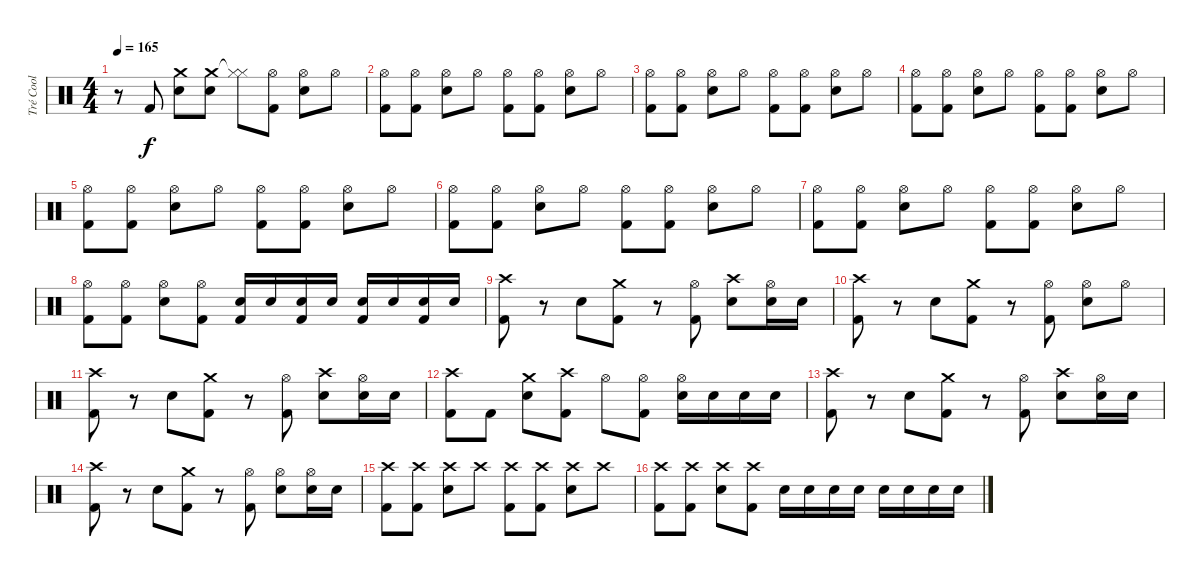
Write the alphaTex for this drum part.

\track ("Tré Cool" "Tré Cool") {instrument percussion}
\staff {score}
\articulation defaults
\ts (4 4)
\tempo 165
\clef neutral
\ks c
r.8{dy mp} "Kick (hit) 2".8{dy f} ("Crash medium (hit)" "Electric Snare (hit)").8 ("Crash medium (hit)" "Electric Snare (hit)").8 ("Hi-Hat (closed)"{t} "Hi-Hat (closed)").8 ("Hi-Hat (open)" "Kick (hit) 2").8 ("Hi-Hat (open)" "Electric Snare (hit)").8 "Hi-Hat (open)".8 |
("Hi-Hat (open)" "Kick (hit) 2").8 ("Hi-Hat (open)" "Kick (hit) 2").8 ("Hi-Hat (open)" "Electric Snare (hit)").8 "Hi-Hat (open)".8 ("Hi-Hat (open)" "Kick (hit) 2").8 ("Hi-Hat (open)" "Kick (hit) 2").8 ("Hi-Hat (open)" "Electric Snare (hit)").8 "Hi-Hat (open)".8 |
("Hi-Hat (open)" "Kick (hit) 2").8 ("Hi-Hat (open)" "Kick (hit) 2").8 ("Hi-Hat (open)" "Electric Snare (hit)").8 "Hi-Hat (open)".8 ("Hi-Hat (open)" "Kick (hit) 2").8 ("Hi-Hat (open)" "Kick (hit) 2").8 ("Hi-Hat (open)" "Electric Snare (hit)").8 "Hi-Hat (open)".8 |
("Hi-Hat (open)" "Kick (hit) 2").8 ("Hi-Hat (open)" "Kick (hit) 2").8 ("Hi-Hat (open)" "Electric Snare (hit)").8 "Hi-Hat (open)".8 ("Hi-Hat (open)" "Kick (hit) 2").8 ("Hi-Hat (open)" "Kick (hit) 2").8 ("Hi-Hat (open)" "Electric Snare (hit)").8 "Hi-Hat (open)".8 |
("Hi-Hat (open)" "Kick (hit) 2").8 ("Hi-Hat (open)" "Kick (hit) 2").8 ("Hi-Hat (open)" "Electric Snare (hit)").8 "Hi-Hat (open)".8 ("Hi-Hat (open)" "Kick (hit) 2").8 ("Hi-Hat (open)" "Kick (hit) 2").8 ("Hi-Hat (open)" "Electric Snare (hit)").8 "Hi-Hat (open)".8 |
("Hi-Hat (open)" "Kick (hit) 2").8 ("Hi-Hat (open)" "Kick (hit) 2").8 ("Hi-Hat (open)" "Electric Snare (hit)").8 "Hi-Hat (open)".8 ("Hi-Hat (open)" "Kick (hit) 2").8 ("Hi-Hat (open)" "Kick (hit) 2").8 ("Hi-Hat (open)" "Electric Snare (hit)").8 "Hi-Hat (open)".8 |
("Hi-Hat (open)" "Kick (hit) 2").8 ("Hi-Hat (open)" "Kick (hit) 2").8 ("Hi-Hat (open)" "Electric Snare (hit)").8 "Hi-Hat (open)".8 ("Hi-Hat (open)" "Kick (hit) 2").8 ("Hi-Hat (open)" "Kick (hit) 2").8 ("Hi-Hat (open)" "Electric Snare (hit)").8 "Hi-Hat (open)".8 |
("Hi-Hat (open)" "Kick (hit) 2").8 ("Hi-Hat (open)" "Kick (hit) 2").8 ("Hi-Hat (open)" "Electric Snare (hit)").8 ("Hi-Hat (open)" "Kick (hit) 2").8 ("Electric Snare (hit)" "Kick (hit) 2").16 "Electric Snare (hit)".16 ("Electric Snare (hit)" "Kick (hit) 2").16 "Electric Snare (hit)".16 ("Electric Snare (hit)" "Kick (hit) 2").16 "Electric Snare (hit)".16 ("Electric Snare (hit)" "Kick (hit) 2").16 "Electric Snare (hit)".16 |
("Crash high (hit)" "Kick (hit) 2").8 r.8 "Electric Snare (hit)".8 ("Crash medium (hit)" "Kick (hit) 2").8 r.8 ("Hi-Hat (open)" "Kick (hit) 2").8 ("Crash high (hit)" "Electric Snare (hit)").8 ("Hi-Hat (open)" "Electric Snare (hit)").16 "Electric Snare (hit)".16 |
("Crash high (hit)" "Kick (hit) 2").8 r.8 "Electric Snare (hit)".8 ("Crash medium (hit)" "Kick (hit) 2").8 r.8 ("Hi-Hat (open)" "Kick (hit) 2").8 ("Hi-Hat (open)" "Electric Snare (hit)").8 "Hi-Hat (open)".8 |
("Crash high (hit)" "Kick (hit) 2").8 r.8 "Electric Snare (hit)".8 ("Crash medium (hit)" "Kick (hit) 2").8 r.8 ("Hi-Hat (open)" "Kick (hit) 2").8 ("Crash high (hit)" "Electric Snare (hit)").8 ("Hi-Hat (open)" "Electric Snare (hit)").16 "Electric Snare (hit)".16 |
("Crash high (hit)" "Kick (hit) 2").8 "Kick (hit) 2".8 ("Crash medium (hit)" "Electric Snare (hit)").8 ("Crash high (hit)" "Kick (hit) 2").8 "Hi-Hat (open)".8 ("Hi-Hat (open)" "Kick (hit) 2").8 ("Hi-Hat (open)" "Electric Snare (hit)").16 "Electric Snare (hit)".16 "Electric Snare (hit)".16 "Electric Snare (hit)".16 |
("Crash high (hit)" "Kick (hit) 2").8 r.8 "Electric Snare (hit)".8 ("Crash medium (hit)" "Kick (hit) 2").8 r.8 ("Hi-Hat (open)" "Kick (hit) 2").8 ("Crash high (hit)" "Electric Snare (hit)").8 ("Hi-Hat (open)" "Electric Snare (hit)").16 "Electric Snare (hit)".16 |
("Crash high (hit)" "Kick (hit) 2").8 r.8 "Electric Snare (hit)".8 ("Crash medium (hit)" "Kick (hit) 2").8 r.8 ("Hi-Hat (open)" "Kick (hit) 2").8 ("Hi-Hat (open)" "Electric Snare (hit)").8 ("Hi-Hat (open)" "Electric Snare (hit)").16 "Electric Snare (hit)".16 |
("Crash high (hit)" "Kick (hit) 2").8 ("Crash high (hit)" "Kick (hit) 2").8 ("Crash high (hit)" "Electric Snare (hit)").8 "Crash high (hit)".8 ("Crash high (hit)" "Kick (hit) 2").8 ("Crash high (hit)" "Kick (hit) 2").8 ("Crash high (hit)" "Electric Snare (hit)").8 "Crash high (hit)".8 |
("Crash high (hit)" "Kick (hit) 2").8 ("Crash high (hit)" "Kick (hit) 2").8 ("Crash high (hit)" "Electric Snare (hit)").8 ("Crash high (hit)" "Kick (hit) 2").8 "Electric Snare (hit)".16 "Electric Snare (hit)".16 "Electric Snare (hit)".16 "Electric Snare (hit)".16 "Electric Snare (hit)".16 "Electric Snare (hit)".16 "Electric Snare (hit)".16 "Electric Snare (hit)".16
